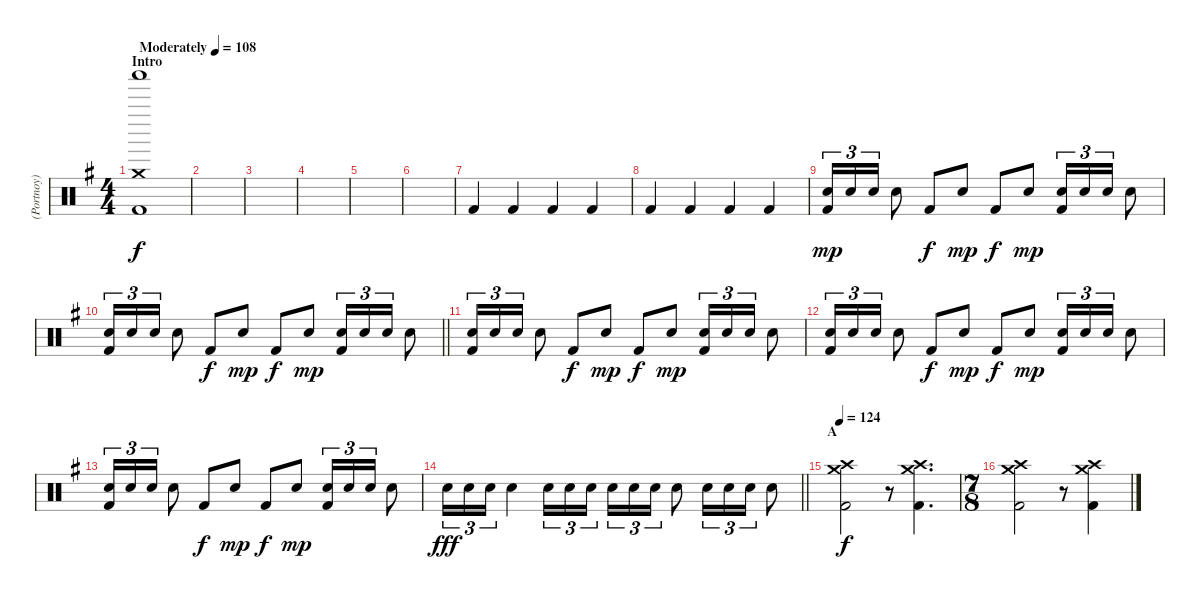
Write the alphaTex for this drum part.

\track ("(Portnoy) Drums" "(Portnoy) ") {instrument percussion}
\staff {score}
\articulation defaults
\ts (4 4)
\section ("" "Intro")
\tempo (108 "Moderately")
\clef neutral
\ks g
("Crash medium (hit)" "Shaker (hit)" "Kick (hit) 2").1{dy f} |
|
|
|
|
|
"Kick (hit) 2".4 "Kick (hit) 2".4 "Kick (hit) 2".4 "Kick (hit) 2".4 |
"Kick (hit) 2".4 "Kick (hit) 2".4 "Kick (hit) 2".4 "Kick (hit) 2".4 |
("Snare (hit) 2" "Kick (hit) 2").16{tu (3 2) dy mp} "Snare (hit) 2".16{tu (3 2)} "Snare (hit) 2".16{tu (3 2)} "Snare (hit) 2".8 "Kick (hit) 2".8{dy f} "Snare (hit) 2".8{dy mp} "Kick (hit) 2".8{dy f} "Snare (hit) 2".8{dy mp} ("Snare (hit) 2" "Kick (hit) 2").16{tu (3 2)} "Snare (hit) 2".16{tu (3 2)} "Snare (hit) 2".16{tu (3 2)} "Snare (hit) 2".8 |
\barLineRight lightlight
("Snare (hit) 2" "Kick (hit) 2").16{tu (3 2)} "Snare (hit) 2".16{tu (3 2)} "Snare (hit) 2".16{tu (3 2)} "Snare (hit) 2".8 "Kick (hit) 2".8{dy f} "Snare (hit) 2".8{dy mp} "Kick (hit) 2".8{dy f} "Snare (hit) 2".8{dy mp} ("Snare (hit) 2" "Kick (hit) 2").16{tu (3 2)} "Snare (hit) 2".16{tu (3 2)} "Snare (hit) 2".16{tu (3 2)} "Snare (hit) 2".8 |
("Snare (hit) 2" "Kick (hit) 2").16{tu (3 2)} "Snare (hit) 2".16{tu (3 2)} "Snare (hit) 2".16{tu (3 2)} "Snare (hit) 2".8 "Kick (hit) 2".8{dy f} "Snare (hit) 2".8{dy mp} "Kick (hit) 2".8{dy f} "Snare (hit) 2".8{dy mp} ("Snare (hit) 2" "Kick (hit) 2").16{tu (3 2)} "Snare (hit) 2".16{tu (3 2)} "Snare (hit) 2".16{tu (3 2)} "Snare (hit) 2".8 |
("Snare (hit) 2" "Kick (hit) 2").16{tu (3 2)} "Snare (hit) 2".16{tu (3 2)} "Snare (hit) 2".16{tu (3 2)} "Snare (hit) 2".8 "Kick (hit) 2".8{dy f} "Snare (hit) 2".8{dy mp} "Kick (hit) 2".8{dy f} "Snare (hit) 2".8{dy mp} ("Snare (hit) 2" "Kick (hit) 2").16{tu (3 2)} "Snare (hit) 2".16{tu (3 2)} "Snare (hit) 2".16{tu (3 2)} "Snare (hit) 2".8 |
("Snare (hit) 2" "Kick (hit) 2").16{tu (3 2)} "Snare (hit) 2".16{tu (3 2)} "Snare (hit) 2".16{tu (3 2)} "Snare (hit) 2".8 "Kick (hit) 2".8{dy f} "Snare (hit) 2".8{dy mp} "Kick (hit) 2".8{dy f} "Snare (hit) 2".8{dy mp} ("Snare (hit) 2" "Kick (hit) 2").16{tu (3 2)} "Snare (hit) 2".16{tu (3 2)} "Snare (hit) 2".16{tu (3 2)} "Snare (hit) 2".8 |
\barLineRight lightlight "Snare (hit) 2".16{tu (3 2) dy fff} "Snare (hit) 2".16{tu (3 2)} "Snare (hit) 2".16{tu (3 2)} "Snare (hit) 2".4 "Snare (hit) 2".16{tu (3 2)} "Snare (hit) 2".16{tu (3 2)} "Snare (hit) 2".16{tu (3 2)} "Snare (hit) 2".16{tu (3 2)} "Snare (hit) 2".16{tu (3 2)} "Snare (hit) 2".16{tu (3 2)} "Snare (hit) 2".8 "Snare (hit) 2".16{tu (3 2)} "Snare (hit) 2".16{tu (3 2)} "Snare (hit) 2".16{tu (3 2)} "Snare (hit) 2".8
|
\section ("" "A")
\tempo 124
("Crash high (hit)" "Crash medium (hit)" "Kick (hit) 2").2{dy f} r.8 ("Crash high (hit)" "Crash medium (hit)" "Kick (hit) 2").4{d} |
\ts (7 8)
("Crash high (hit)" "Crash medium (hit)" "Kick (hit) 2").2 r.8 ("Crash high (hit)" "Crash medium (hit)" "Kick (hit) 2").4
